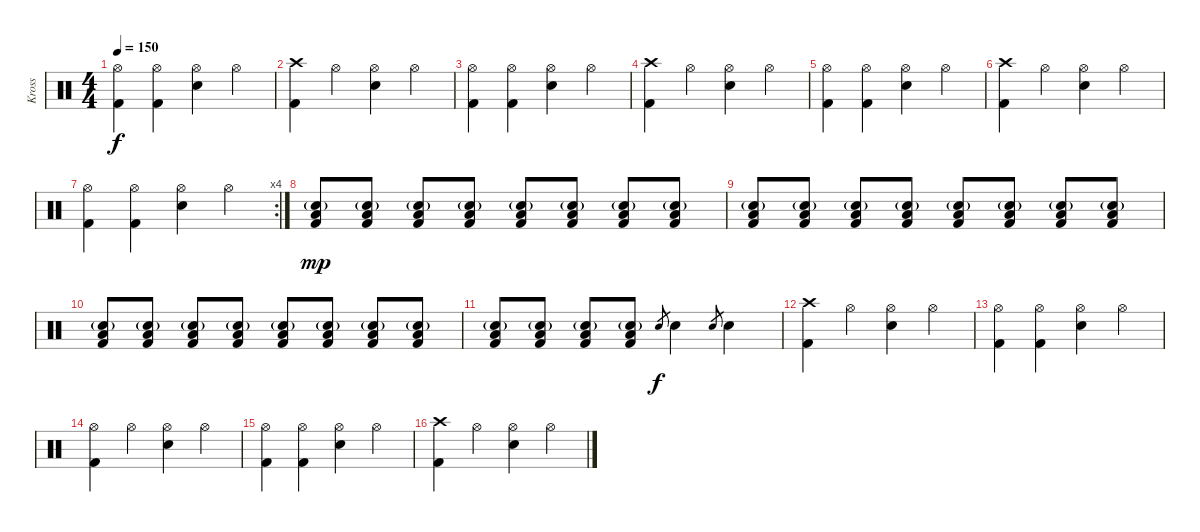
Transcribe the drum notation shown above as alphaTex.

\track ("Kross" "Kross") {instrument percussion}
\staff {score}
\articulation defaults
\ts (4 4)
\tempo 150
\clef neutral
\ks c
("Hi-Hat (open)" "Kick (hit) 2").4{dy f} ("Hi-Hat (open)" "Kick (hit) 2").4 ("Hi-Hat (open)" "Snare (hit) 2").4 "Hi-Hat (open)".4 |
("Crash high (hit)" "Kick (hit) 2").4 "Hi-Hat (open)".4 ("Hi-Hat (open)" "Snare (hit) 2").4 "Hi-Hat (open)".4 |
("Hi-Hat (open)" "Kick (hit) 2").4 ("Hi-Hat (open)" "Kick (hit) 2").4 ("Hi-Hat (open)" "Snare (hit) 2").4 "Hi-Hat (open)".4 |
("Crash high (hit)" "Kick (hit) 2").4 "Hi-Hat (open)".4 ("Hi-Hat (open)" "Snare (hit) 2").4 "Hi-Hat (open)".4 |
("Hi-Hat (open)" "Kick (hit) 2").4 ("Hi-Hat (open)" "Kick (hit) 2").4 ("Hi-Hat (open)" "Snare (hit) 2").4 "Hi-Hat (open)".4 |
("Crash high (hit)" "Kick (hit) 2").4 "Hi-Hat (open)".4 ("Hi-Hat (open)" "Snare (hit) 2").4 "Hi-Hat (open)".4 |
\rc 4
("Hi-Hat (open)" "Kick (hit) 2").4 ("Hi-Hat (open)" "Kick (hit) 2").4 ("Hi-Hat (open)" "Snare (hit) 2").4 "Hi-Hat (open)".4 |
("Snare (hit) 2"{g} "Kick (hit) 2" "Low Floor Tom (hit)").8{dy mp} ("Snare (hit) 2"{g} "Kick (hit) 2" "Low Floor Tom (hit)").8 ("Snare (hit) 2"{g} "Kick (hit) 2" "Low Floor Tom (hit)").8 ("Snare (hit) 2"{g} "Kick (hit) 2" "Low Floor Tom (hit)").8 ("Snare (hit) 2"{g} "Kick (hit) 2" "Low Floor Tom (hit)").8 ("Snare (hit) 2"{g} "Kick (hit) 2" "Low Floor Tom (hit)").8 ("Snare (hit) 2"{g} "Kick (hit) 2" "Low Floor Tom (hit)").8 ("Snare (hit) 2"{g} "Kick (hit) 2" "Low Floor Tom (hit)").8 |
("Snare (hit) 2"{g} "Kick (hit) 2" "Low Floor Tom (hit)").8 ("Snare (hit) 2"{g} "Kick (hit) 2" "Low Floor Tom (hit)").8 ("Snare (hit) 2"{g} "Kick (hit) 2" "Low Floor Tom (hit)").8 ("Snare (hit) 2"{g} "Kick (hit) 2" "Low Floor Tom (hit)").8 ("Snare (hit) 2"{g} "Kick (hit) 2" "Low Floor Tom (hit)").8 ("Snare (hit) 2"{g} "Kick (hit) 2" "Low Floor Tom (hit)").8 ("Snare (hit) 2"{g} "Kick (hit) 2" "Low Floor Tom (hit)").8 ("Snare (hit) 2"{g} "Kick (hit) 2" "Low Floor Tom (hit)").8 |
("Snare (hit) 2"{g} "Kick (hit) 2" "Low Floor Tom (hit)").8 ("Snare (hit) 2"{g} "Kick (hit) 2" "Low Floor Tom (hit)").8 ("Snare (hit) 2"{g} "Kick (hit) 2" "Low Floor Tom (hit)").8 ("Snare (hit) 2"{g} "Kick (hit) 2" "Low Floor Tom (hit)").8 ("Snare (hit) 2"{g} "Kick (hit) 2" "Low Floor Tom (hit)").8 ("Snare (hit) 2"{g} "Kick (hit) 2" "Low Floor Tom (hit)").8 ("Snare (hit) 2"{g} "Kick (hit) 2" "Low Floor Tom (hit)").8 ("Snare (hit) 2"{g} "Kick (hit) 2" "Low Floor Tom (hit)").8 |
("Snare (hit) 2"{g} "Kick (hit) 2" "Low Floor Tom (hit)").8 ("Snare (hit) 2"{g} "Kick (hit) 2" "Low Floor Tom (hit)").8 ("Snare (hit) 2"{g} "Kick (hit) 2" "Low Floor Tom (hit)").8 ("Snare (hit) 2"{g} "Kick (hit) 2" "Low Floor Tom (hit)").8 "Snare (hit) 2".8{gr dy f} "Snare (hit) 2".4 "Snare (hit) 2".8{gr} "Snare (hit) 2".4 |
("Crash high (hit)" "Kick (hit) 2").4 "Hi-Hat (open)".4 ("Hi-Hat (open)" "Snare (hit) 2").4 "Hi-Hat (open)".4 |
("Hi-Hat (open)" "Kick (hit) 2").4 ("Hi-Hat (open)" "Kick (hit) 2").4 ("Hi-Hat (open)" "Snare (hit) 2").4 "Hi-Hat (open)".4 |
("Hi-Hat (open)" "Kick (hit) 2").4 "Hi-Hat (open)".4 ("Hi-Hat (open)" "Snare (hit) 2").4 "Hi-Hat (open)".4 |
("Hi-Hat (open)" "Kick (hit) 2").4 ("Hi-Hat (open)" "Kick (hit) 2").4 ("Hi-Hat (open)" "Snare (hit) 2").4 "Hi-Hat (open)".4 |
("Crash high (hit)" "Kick (hit) 2").4 "Hi-Hat (open)".4 ("Hi-Hat (open)" "Snare (hit) 2").4 "Hi-Hat (open)".4
